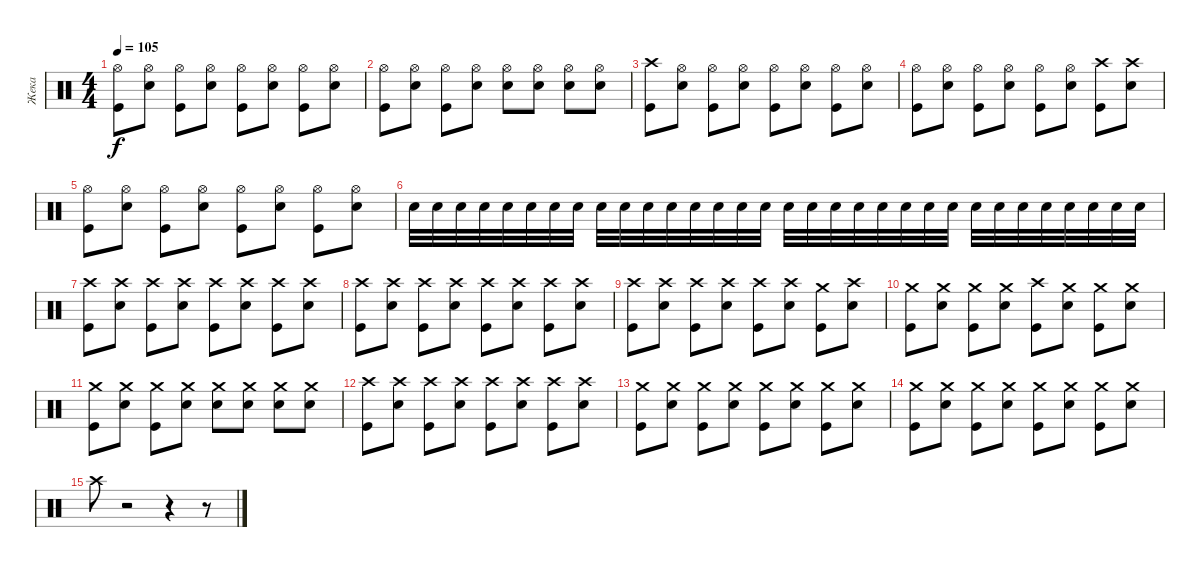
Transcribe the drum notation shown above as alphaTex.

\track ("Жека" "Жека") {instrument percussion}
\staff {score}
\articulation defaults
\ts (4 4)
\tempo 105
\clef neutral
\ks c
("Hi-Hat (open)" "Kick (hit)").8{dy f} ("Hi-Hat (open)" "Snare (hit) 2").8 ("Hi-Hat (open)" "Kick (hit)").8 ("Hi-Hat (open)" "Snare (hit) 2").8 ("Hi-Hat (open)" "Kick (hit)").8 ("Hi-Hat (open)" "Snare (hit) 2").8 ("Hi-Hat (open)" "Kick (hit)").8 ("Hi-Hat (open)" "Snare (hit) 2").8 |
("Hi-Hat (open)" "Kick (hit)").8 ("Hi-Hat (open)" "Snare (hit) 2").8 ("Hi-Hat (open)" "Kick (hit)").8 ("Hi-Hat (open)" "Snare (hit) 2").8 ("Hi-Hat (open)" "Snare (hit) 2").8 ("Hi-Hat (open)" "Snare (hit) 2").8 ("Hi-Hat (open)" "Snare (hit) 2").8 ("Hi-Hat (open)" "Snare (hit) 2").8 |
("Crash high (hit)" "Kick (hit)").8 ("Hi-Hat (open)" "Snare (hit) 2").8 ("Hi-Hat (open)" "Kick (hit)").8 ("Hi-Hat (open)" "Snare (hit) 2").8 ("Hi-Hat (open)" "Kick (hit)").8 ("Hi-Hat (open)" "Snare (hit) 2").8 ("Hi-Hat (open)" "Kick (hit)").8 ("Hi-Hat (open)" "Snare (hit) 2").8 |
("Hi-Hat (open)" "Kick (hit)").8 ("Hi-Hat (open)" "Snare (hit) 2").8 ("Hi-Hat (open)" "Kick (hit)").8 ("Hi-Hat (open)" "Snare (hit) 2").8 ("Hi-Hat (open)" "Kick (hit)").8 ("Hi-Hat (open)" "Snare (hit) 2").8 ("Crash high (hit)" "Kick (hit)").8 ("Crash high (hit)" "Snare (hit) 2").8 |
("Hi-Hat (open)" "Kick (hit)").8 ("Hi-Hat (open)" "Snare (hit) 2").8 ("Hi-Hat (open)" "Kick (hit)").8 ("Hi-Hat (open)" "Snare (hit) 2").8 ("Hi-Hat (open)" "Kick (hit)").8 ("Hi-Hat (open)" "Snare (hit) 2").8 ("Hi-Hat (open)" "Kick (hit)").8 ("Hi-Hat (open)" "Snare (hit) 2").8 |
"Snare (hit) 2".32 "Snare (hit) 2".32 "Snare (hit) 2".32 "Snare (hit) 2".32 "Snare (hit) 2".32 "Snare (hit) 2".32 "Snare (hit) 2".32 "Snare (hit) 2".32 "Snare (hit) 2".32 "Snare (hit) 2".32 "Snare (hit) 2".32 "Snare (hit) 2".32 "Snare (hit) 2".32 "Snare (hit) 2".32 "Snare (hit) 2".32 "Snare (hit) 2".32 "Snare (hit) 2".32 "Snare (hit) 2".32 "Snare (hit) 2".32 "Snare (hit) 2".32 "Snare (hit) 2".32 "Snare (hit) 2".32 "Snare (hit) 2".32 "Snare (hit) 2".32 "Snare (hit) 2".32 "Snare (hit) 2".32 "Snare (hit) 2".32 "Snare (hit) 2".32 "Snare (hit) 2".32 "Snare (hit) 2".32 "Snare (hit) 2".32 "Snare (hit) 2".32 |
("Crash high (hit)" "Kick (hit)").8 ("Crash high (hit)" "Snare (hit) 2").8 ("Crash high (hit)" "Kick (hit)").8 ("Crash high (hit)" "Snare (hit) 2").8 ("Crash high (hit)" "Kick (hit)").8 ("Crash high (hit)" "Snare (hit) 2").8 ("Crash high (hit)" "Kick (hit)").8 ("Crash high (hit)" "Snare (hit) 2").8 |
("Crash high (hit)" "Kick (hit)").8 ("Crash high (hit)" "Snare (hit) 2").8 ("Crash high (hit)" "Kick (hit)").8 ("Crash high (hit)" "Snare (hit) 2").8 ("Crash high (hit)" "Kick (hit)").8 ("Crash high (hit)" "Snare (hit) 2").8 ("Crash high (hit)" "Kick (hit)").8 ("Crash high (hit)" "Snare (hit) 2").8 |
("Crash high (hit)" "Kick (hit)").8 ("Crash high (hit)" "Snare (hit) 2").8 ("Crash high (hit)" "Kick (hit)").8 ("Crash high (hit)" "Snare (hit) 2").8 ("Crash high (hit)" "Kick (hit)").8 ("Crash high (hit)" "Snare (hit) 2").8 ("Crash medium (hit)" "Kick (hit)").8 ("Crash high (hit)" "Snare (hit) 2").8 |
("Crash medium (hit)" "Kick (hit)").8 ("Crash medium (hit)" "Snare (hit) 2").8 ("Crash medium (hit)" "Kick (hit)").8 ("Crash medium (hit)" "Snare (hit) 2").8 ("Crash high (hit)" "Kick (hit)").8 ("Crash medium (hit)" "Snare (hit) 2").8 ("Crash medium (hit)" "Kick (hit)").8 ("Crash medium (hit)" "Snare (hit) 2").8 |
("Crash medium (hit)" "Kick (hit)").8 ("Crash medium (hit)" "Snare (hit) 2").8 ("Crash medium (hit)" "Kick (hit)").8 ("Crash medium (hit)" "Snare (hit) 2").8 ("Crash medium (hit)" "Snare (hit) 2").8 ("Crash medium (hit)" "Snare (hit) 2").8 ("Crash medium (hit)" "Snare (hit) 2").8 ("Crash medium (hit)" "Snare (hit) 2").8 |
("Crash high (hit)" "Kick (hit)").8 ("Crash high (hit)" "Snare (hit) 2").8 ("Crash high (hit)" "Kick (hit)").8 ("Crash high (hit)" "Snare (hit) 2").8 ("Crash high (hit)" "Kick (hit)").8 ("Crash high (hit)" "Snare (hit) 2").8 ("Crash high (hit)" "Kick (hit)").8 ("Crash high (hit)" "Snare (hit) 2").8 |
("Crash medium (hit)" "Kick (hit)").8 ("Crash medium (hit)" "Snare (hit) 2").8 ("Crash medium (hit)" "Kick (hit)").8 ("Crash medium (hit)" "Snare (hit) 2").8 ("Crash medium (hit)" "Kick (hit)").8 ("Crash medium (hit)" "Snare (hit) 2").8 ("Crash medium (hit)" "Kick (hit)").8 ("Crash medium (hit)" "Snare (hit) 2").8 |
("Crash medium (hit)" "Kick (hit)").8 ("Crash medium (hit)" "Snare (hit) 2").8 ("Crash medium (hit)" "Kick (hit)").8 ("Crash medium (hit)" "Snare (hit) 2").8 ("Crash medium (hit)" "Kick (hit)").8 ("Crash medium (hit)" "Snare (hit) 2").8 ("Crash medium (hit)" "Kick (hit)").8 ("Crash medium (hit)" "Snare (hit) 2").8 |
"Crash high (hit)".8 r.2 r.4 r.8
